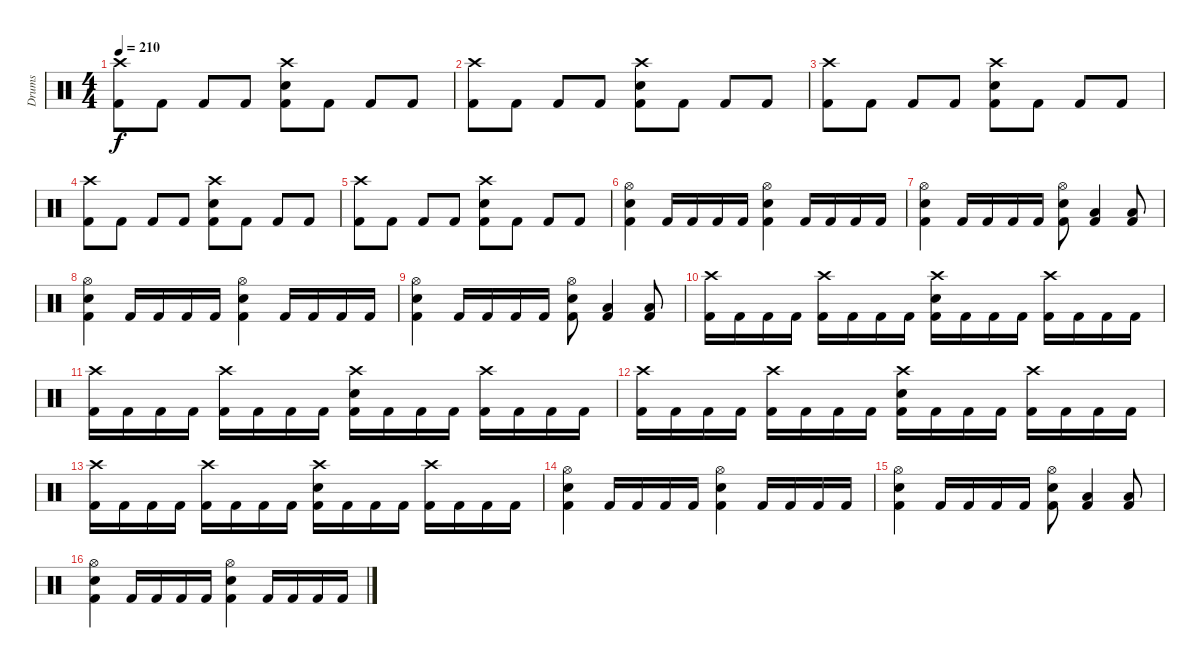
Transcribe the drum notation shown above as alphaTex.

\track ("Drums" "Drums") {instrument percussion}
\staff {score}
\articulation defaults
\ts (4 4)
\tempo 210
\clef neutral
\ks c
("Crash high (hit)" "Kick (hit) 2").8{dy f} "Kick (hit) 2".8 "Kick (hit) 2".8 "Kick (hit) 2".8 ("Crash high (hit)" "Electric Snare (hit)" "Kick (hit) 2").8 "Kick (hit) 2".8 "Kick (hit) 2".8 "Kick (hit) 2".8 |
("Crash high (hit)" "Kick (hit) 2").8 "Kick (hit) 2".8 "Kick (hit) 2".8 "Kick (hit) 2".8 ("Crash high (hit)" "Electric Snare (hit)" "Kick (hit) 2").8 "Kick (hit) 2".8 "Kick (hit) 2".8 "Kick (hit) 2".8 |
("Crash high (hit)" "Kick (hit) 2").8 "Kick (hit) 2".8 "Kick (hit) 2".8 "Kick (hit) 2".8 ("Crash high (hit)" "Electric Snare (hit)" "Kick (hit) 2").8 "Kick (hit) 2".8 "Kick (hit) 2".8 "Kick (hit) 2".8 |
("Crash high (hit)" "Kick (hit) 2").8 "Kick (hit) 2".8 "Kick (hit) 2".8 "Kick (hit) 2".8 ("Crash high (hit)" "Electric Snare (hit)" "Kick (hit) 2").8 "Kick (hit) 2".8 "Kick (hit) 2".8 "Kick (hit) 2".8 |
("Crash high (hit)" "Kick (hit) 2").8 "Kick (hit) 2".8 "Kick (hit) 2".8 "Kick (hit) 2".8 ("Crash high (hit)" "Electric Snare (hit)" "Kick (hit) 2").8 "Kick (hit) 2".8 "Kick (hit) 2".8 "Kick (hit) 2".8 |
("Hi-Hat (open)" "Electric Snare (hit)" "Kick (hit) 2").4 "Kick (hit) 2".16 "Kick (hit) 2".16 "Kick (hit) 2".16 "Kick (hit) 2".16 ("Hi-Hat (open)" "Electric Snare (hit)" "Kick (hit) 2").4 "Kick (hit) 2".16 "Kick (hit) 2".16 "Kick (hit) 2".16 "Kick (hit) 2".16 |
("Hi-Hat (open)" "Electric Snare (hit)" "Kick (hit) 2").4 "Kick (hit) 2".16 "Kick (hit) 2".16 "Kick (hit) 2".16 "Kick (hit) 2".16 ("Hi-Hat (open)" "Electric Snare (hit)" "Kick (hit) 2").8 ("Low Floor Tom (hit)" "Kick (hit) 2").4 ("Low Floor Tom (hit)" "Kick (hit) 2").8 |
("Hi-Hat (open)" "Electric Snare (hit)" "Kick (hit) 2").4 "Kick (hit) 2".16 "Kick (hit) 2".16 "Kick (hit) 2".16 "Kick (hit) 2".16 ("Hi-Hat (open)" "Electric Snare (hit)" "Kick (hit) 2").4 "Kick (hit) 2".16 "Kick (hit) 2".16 "Kick (hit) 2".16 "Kick (hit) 2".16 |
("Hi-Hat (open)" "Electric Snare (hit)" "Kick (hit) 2").4 "Kick (hit) 2".16 "Kick (hit) 2".16 "Kick (hit) 2".16 "Kick (hit) 2".16 ("Hi-Hat (open)" "Electric Snare (hit)" "Kick (hit) 2").8 ("Low Floor Tom (hit)" "Kick (hit) 2").4 ("Low Floor Tom (hit)" "Kick (hit) 2").8 |
("Crash high (hit)" "Kick (hit) 2").16 "Kick (hit) 2".16 "Kick (hit) 2".16 "Kick (hit) 2".16 ("Crash high (hit)" "Kick (hit) 2").16 "Kick (hit) 2".16 "Kick (hit) 2".16 "Kick (hit) 2".16 ("Crash high (hit)" "Electric Snare (hit)" "Kick (hit) 2").16 "Kick (hit) 2".16 "Kick (hit) 2".16 "Kick (hit) 2".16 ("Crash high (hit)" "Kick (hit) 2").16 "Kick (hit) 2".16 "Kick (hit) 2".16 "Kick (hit) 2".16 |
("Crash high (hit)" "Kick (hit) 2").16 "Kick (hit) 2".16 "Kick (hit) 2".16 "Kick (hit) 2".16 ("Crash high (hit)" "Kick (hit) 2").16 "Kick (hit) 2".16 "Kick (hit) 2".16 "Kick (hit) 2".16 ("Crash high (hit)" "Electric Snare (hit)" "Kick (hit) 2").16 "Kick (hit) 2".16 "Kick (hit) 2".16 "Kick (hit) 2".16 ("Crash high (hit)" "Kick (hit) 2").16 "Kick (hit) 2".16 "Kick (hit) 2".16 "Kick (hit) 2".16 |
("Crash high (hit)" "Kick (hit) 2").16 "Kick (hit) 2".16 "Kick (hit) 2".16 "Kick (hit) 2".16 ("Crash high (hit)" "Kick (hit) 2").16 "Kick (hit) 2".16 "Kick (hit) 2".16 "Kick (hit) 2".16 ("Crash high (hit)" "Electric Snare (hit)" "Kick (hit) 2").16 "Kick (hit) 2".16 "Kick (hit) 2".16 "Kick (hit) 2".16 ("Crash high (hit)" "Kick (hit) 2").16 "Kick (hit) 2".16 "Kick (hit) 2".16 "Kick (hit) 2".16 |
("Crash high (hit)" "Kick (hit) 2").16 "Kick (hit) 2".16 "Kick (hit) 2".16 "Kick (hit) 2".16 ("Crash high (hit)" "Kick (hit) 2").16 "Kick (hit) 2".16 "Kick (hit) 2".16 "Kick (hit) 2".16 ("Crash high (hit)" "Electric Snare (hit)" "Kick (hit) 2").16 "Kick (hit) 2".16 "Kick (hit) 2".16 "Kick (hit) 2".16 ("Crash high (hit)" "Kick (hit) 2").16 "Kick (hit) 2".16 "Kick (hit) 2".16 "Kick (hit) 2".16 |
("Hi-Hat (open)" "Electric Snare (hit)" "Kick (hit) 2").4 "Kick (hit) 2".16 "Kick (hit) 2".16 "Kick (hit) 2".16 "Kick (hit) 2".16 ("Hi-Hat (open)" "Electric Snare (hit)" "Kick (hit) 2").4 "Kick (hit) 2".16 "Kick (hit) 2".16 "Kick (hit) 2".16 "Kick (hit) 2".16 |
("Hi-Hat (open)" "Electric Snare (hit)" "Kick (hit) 2").4 "Kick (hit) 2".16 "Kick (hit) 2".16 "Kick (hit) 2".16 "Kick (hit) 2".16 ("Hi-Hat (open)" "Electric Snare (hit)" "Kick (hit) 2").8 ("Low Floor Tom (hit)" "Kick (hit) 2").4 ("Low Floor Tom (hit)" "Kick (hit) 2").8 |
("Hi-Hat (open)" "Electric Snare (hit)" "Kick (hit) 2").4 "Kick (hit) 2".16 "Kick (hit) 2".16 "Kick (hit) 2".16 "Kick (hit) 2".16 ("Hi-Hat (open)" "Electric Snare (hit)" "Kick (hit) 2").4 "Kick (hit) 2".16 "Kick (hit) 2".16 "Kick (hit) 2".16 "Kick (hit) 2".16
